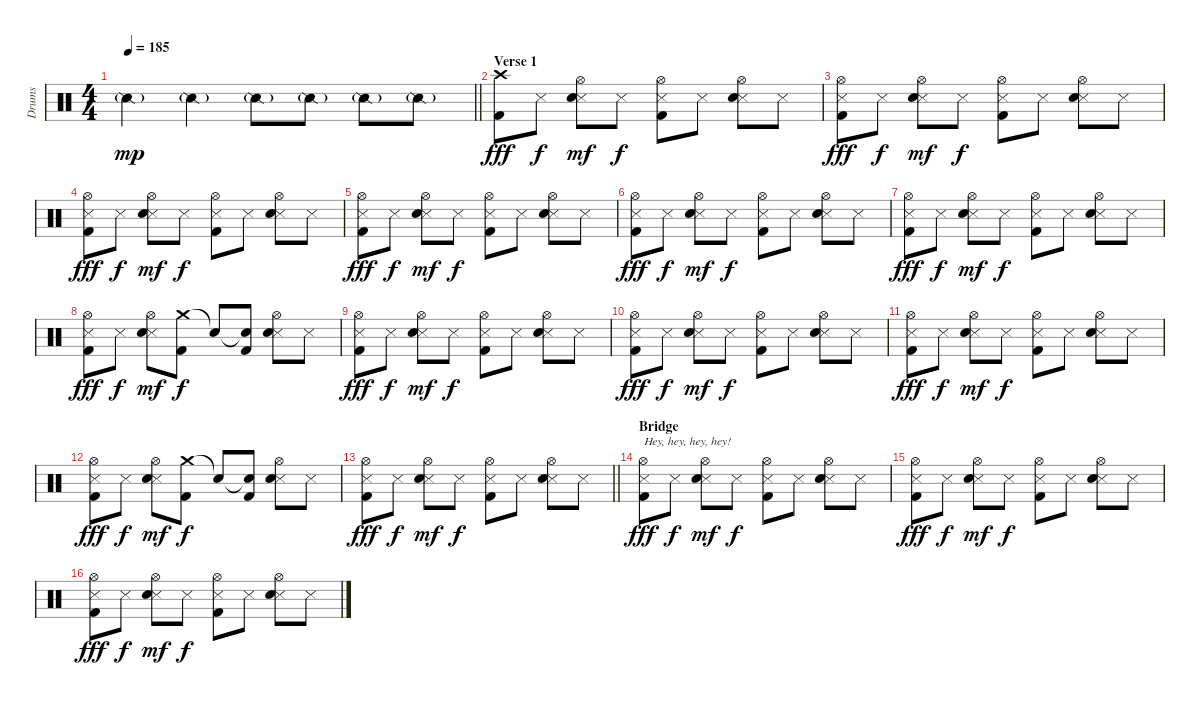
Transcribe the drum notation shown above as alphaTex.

\track ("Drums" "Drums") {instrument percussion}
\staff {score}
\articulation defaults
\ts (4 4)
\tempo 185
\clef neutral
\barLineRight lightlight
\ks c "Snare (side stick) 2"{g}.4{dy mp} "Snare (side stick) 2"{g}.4 "Snare (side stick) 2"{g}.8 "Snare (side stick) 2"{g}.8 "Snare (side stick) 2"{g}.8 "Snare (side stick) 2"{g}.8
|
\section ("" "Verse 1")
("Crash high (hit)" "Kick (hit) 2").8{dy fff} "Metronome (hit)".8{dy f} ("Hi-Hat (open)" "Metronome (hit)" "Snare (hit) 2").8{dy mf} "Metronome (hit)".8{dy f} ("Hi-Hat (open)" "Metronome (hit)" "Kick (hit) 2").8 "Metronome (hit)".8 ("Hi-Hat (open)" "Metronome (hit)" "Snare (hit) 2").8 "Metronome (hit)".8 |
("Hi-Hat (open)" "Metronome (hit)" "Kick (hit) 2").8{dy fff} "Metronome (hit)".8{dy f} ("Hi-Hat (open)" "Metronome (hit)" "Snare (hit) 2").8{dy mf} "Metronome (hit)".8{dy f} ("Hi-Hat (open)" "Metronome (hit)" "Kick (hit) 2").8 "Metronome (hit)".8 ("Hi-Hat (open)" "Metronome (hit)" "Snare (hit) 2").8 "Metronome (hit)".8 |
("Hi-Hat (open)" "Metronome (hit)" "Kick (hit) 2").8{dy fff} "Metronome (hit)".8{dy f} ("Hi-Hat (open)" "Metronome (hit)" "Snare (hit) 2").8{dy mf} "Metronome (hit)".8{dy f} ("Hi-Hat (open)" "Metronome (hit)" "Kick (hit) 2").8 "Metronome (hit)".8 ("Hi-Hat (open)" "Metronome (hit)" "Snare (hit) 2").8 "Metronome (hit)".8 |
("Hi-Hat (open)" "Metronome (hit)" "Kick (hit) 2").8{dy fff} "Metronome (hit)".8{dy f} ("Hi-Hat (open)" "Metronome (hit)" "Snare (hit) 2").8{dy mf} "Metronome (hit)".8{dy f} ("Hi-Hat (open)" "Metronome (hit)" "Kick (hit) 2").8 "Metronome (hit)".8 ("Hi-Hat (open)" "Metronome (hit)" "Snare (hit) 2").8 "Metronome (hit)".8 |
("Hi-Hat (open)" "Metronome (hit)" "Kick (hit) 2").8{dy fff} "Metronome (hit)".8{dy f} ("Hi-Hat (open)" "Metronome (hit)" "Snare (hit) 2").8{dy mf} "Metronome (hit)".8{dy f} ("Hi-Hat (open)" "Metronome (hit)" "Kick (hit) 2").8 "Metronome (hit)".8 ("Hi-Hat (open)" "Metronome (hit)" "Snare (hit) 2").8 "Metronome (hit)".8 |
("Hi-Hat (open)" "Metronome (hit)" "Kick (hit) 2").8{dy fff} "Metronome (hit)".8{dy f} ("Hi-Hat (open)" "Metronome (hit)" "Snare (hit) 2").8{dy mf} "Metronome (hit)".8{dy f} ("Hi-Hat (open)" "Metronome (hit)" "Kick (hit) 2").8 "Metronome (hit)".8 ("Hi-Hat (open)" "Metronome (hit)" "Snare (hit) 2").8 "Metronome (hit)".8 |
("Hi-Hat (open)" "Metronome (hit)" "Kick (hit) 2").8{dy fff} "Metronome (hit)".8{dy f} ("Hi-Hat (open)" "Metronome (hit)" "Snare (hit) 2").8{dy mf} ("Crash medium (hit)" "Kick (hit) 2").8{dy f} "Snare (hit)"{t}.8 ("Snare (hit)"{t} "Kick (hit) 2").8 ("Hi-Hat (open)" "Metronome (hit)" "Snare (hit) 2").8 "Metronome (hit)".8 |
("Hi-Hat (open)" "Metronome (hit)" "Kick (hit) 2").8{dy fff} "Metronome (hit)".8{dy f} ("Hi-Hat (open)" "Metronome (hit)" "Snare (hit) 2").8{dy mf} "Metronome (hit)".8{dy f} ("Hi-Hat (open)" "Metronome (hit)" "Kick (hit) 2").8 "Metronome (hit)".8 ("Hi-Hat (open)" "Metronome (hit)" "Snare (hit) 2").8 "Metronome (hit)".8 |
("Hi-Hat (open)" "Metronome (hit)" "Kick (hit) 2").8{dy fff} "Metronome (hit)".8{dy f} ("Hi-Hat (open)" "Metronome (hit)" "Snare (hit) 2").8{dy mf} "Metronome (hit)".8{dy f} ("Hi-Hat (open)" "Metronome (hit)" "Kick (hit) 2").8 "Metronome (hit)".8 ("Hi-Hat (open)" "Metronome (hit)" "Snare (hit) 2").8 "Metronome (hit)".8 |
("Hi-Hat (open)" "Metronome (hit)" "Kick (hit) 2").8{dy fff} "Metronome (hit)".8{dy f} ("Hi-Hat (open)" "Metronome (hit)" "Snare (hit) 2").8{dy mf} "Metronome (hit)".8{dy f} ("Hi-Hat (open)" "Metronome (hit)" "Kick (hit) 2").8 "Metronome (hit)".8 ("Hi-Hat (open)" "Metronome (hit)" "Snare (hit) 2").8 "Metronome (hit)".8 |
("Hi-Hat (open)" "Metronome (hit)" "Kick (hit) 2").8{dy fff} "Metronome (hit)".8{dy f} ("Hi-Hat (open)" "Metronome (hit)" "Snare (hit) 2").8{dy mf} ("Crash medium (hit)" "Kick (hit) 2").8{dy f} "Snare (hit)"{t}.8 ("Snare (hit)"{t} "Kick (hit) 2").8 ("Hi-Hat (open)" "Metronome (hit)" "Snare (hit) 2").8 "Metronome (hit)".8 |
\barLineRight lightlight
("Hi-Hat (open)" "Metronome (hit)" "Kick (hit) 2").8{dy fff} "Metronome (hit)".8{dy f} ("Hi-Hat (open)" "Metronome (hit)" "Snare (hit) 2").8{dy mf} "Metronome (hit)".8{dy f} ("Hi-Hat (open)" "Metronome (hit)" "Kick (hit) 2").8 "Metronome (hit)".8 ("Hi-Hat (open)" "Metronome (hit)" "Snare (hit) 2").8 "Metronome (hit)".8 |
\section ("" "Bridge")
("Hi-Hat (open)" "Metronome (hit)" "Kick (hit) 2").8{txt "Hey, hey, hey, hey!" dy fff} "Metronome (hit)".8{dy f} ("Hi-Hat (open)" "Metronome (hit)" "Snare (hit) 2").8{dy mf} "Metronome (hit)".8{dy f} ("Hi-Hat (open)" "Metronome (hit)" "Kick (hit) 2").8 "Metronome (hit)".8 ("Hi-Hat (open)" "Metronome (hit)" "Snare (hit) 2").8 "Metronome (hit)".8 |
("Hi-Hat (open)" "Metronome (hit)" "Kick (hit) 2").8{dy fff} "Metronome (hit)".8{dy f} ("Hi-Hat (open)" "Metronome (hit)" "Snare (hit) 2").8{dy mf} "Metronome (hit)".8{dy f} ("Hi-Hat (open)" "Metronome (hit)" "Kick (hit) 2").8 "Metronome (hit)".8 ("Hi-Hat (open)" "Metronome (hit)" "Snare (hit) 2").8 "Metronome (hit)".8 |
("Hi-Hat (open)" "Metronome (hit)" "Kick (hit) 2").8{dy fff} "Metronome (hit)".8{dy f} ("Hi-Hat (open)" "Metronome (hit)" "Snare (hit) 2").8{dy mf} "Metronome (hit)".8{dy f} ("Hi-Hat (open)" "Metronome (hit)" "Kick (hit) 2").8 "Metronome (hit)".8 ("Hi-Hat (open)" "Metronome (hit)" "Snare (hit) 2").8 "Metronome (hit)".8
